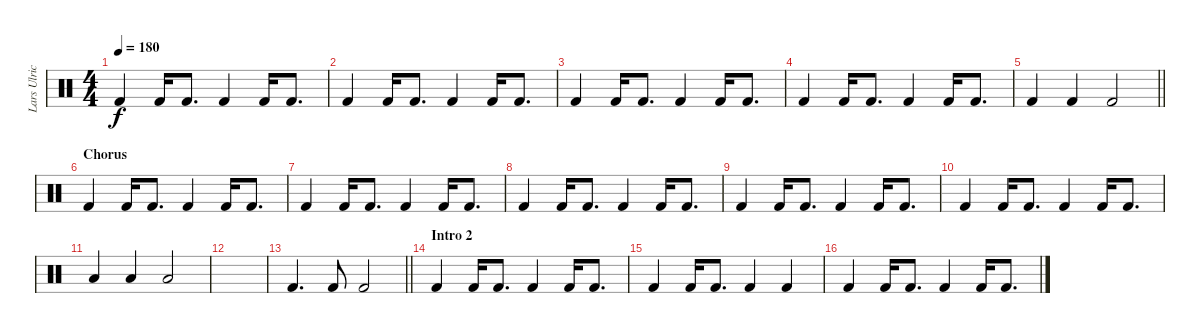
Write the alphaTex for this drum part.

\track ("Lars Ulrich" "Lars Ulric") {instrument percussion}
\staff {score}
\articulation defaults
\ts (4 4)
\tempo 180
\clef neutral
\ks c "Kick (hit) 2".4{dy f} "Kick (hit) 2".16 "Kick (hit) 2".8{d} "Kick (hit) 2".4 "Kick (hit) 2".16 "Kick (hit) 2".8{d}
|
"Kick (hit) 2".4 "Kick (hit) 2".16 "Kick (hit) 2".8{d} "Kick (hit) 2".4 "Kick (hit) 2".16 "Kick (hit) 2".8{d} |
"Kick (hit) 2".4 "Kick (hit) 2".16 "Kick (hit) 2".8{d} "Kick (hit) 2".4 "Kick (hit) 2".16 "Kick (hit) 2".8{d} |
"Kick (hit) 2".4 "Kick (hit) 2".16 "Kick (hit) 2".8{d} "Kick (hit) 2".4 "Kick (hit) 2".16 "Kick (hit) 2".8{d} |
\barLineRight lightlight "Kick (hit) 2".4 "Kick (hit) 2".4 "Kick (hit) 2".2
|
\section ("" "Chorus")
"Kick (hit) 2".4 "Kick (hit) 2".16 "Kick (hit) 2".8{d} "Kick (hit) 2".4 "Kick (hit) 2".16 "Kick (hit) 2".8{d} |
"Kick (hit) 2".4 "Kick (hit) 2".16 "Kick (hit) 2".8{d} "Kick (hit) 2".4 "Kick (hit) 2".16 "Kick (hit) 2".8{d} |
"Kick (hit) 2".4 "Kick (hit) 2".16 "Kick (hit) 2".8{d} "Kick (hit) 2".4 "Kick (hit) 2".16 "Kick (hit) 2".8{d} |
"Kick (hit) 2".4 "Kick (hit) 2".16 "Kick (hit) 2".8{d} "Kick (hit) 2".4 "Kick (hit) 2".16 "Kick (hit) 2".8{d} |
"Kick (hit) 2".4 "Kick (hit) 2".16 "Kick (hit) 2".8{d} "Kick (hit) 2".4 "Kick (hit) 2".16 "Kick (hit) 2".8{d} |
"Low Floor Tom (hit)".4 "Low Floor Tom (hit)".4 "Low Floor Tom (hit)".2 |
|
\barLineRight lightlight "Kick (hit) 2".4{d} "Kick (hit) 2".8 "Kick (hit) 2".2
|
\section ("" "Intro 2")
"Kick (hit) 2".4 "Kick (hit) 2".16 "Kick (hit) 2".8{d} "Kick (hit) 2".4 "Kick (hit) 2".16 "Kick (hit) 2".8{d} |
"Kick (hit) 2".4 "Kick (hit) 2".16 "Kick (hit) 2".8{d} "Kick (hit) 2".4 "Kick (hit) 2".4 |
"Kick (hit) 2".4 "Kick (hit) 2".16 "Kick (hit) 2".8{d} "Kick (hit) 2".4 "Kick (hit) 2".16 "Kick (hit) 2".8{d}
